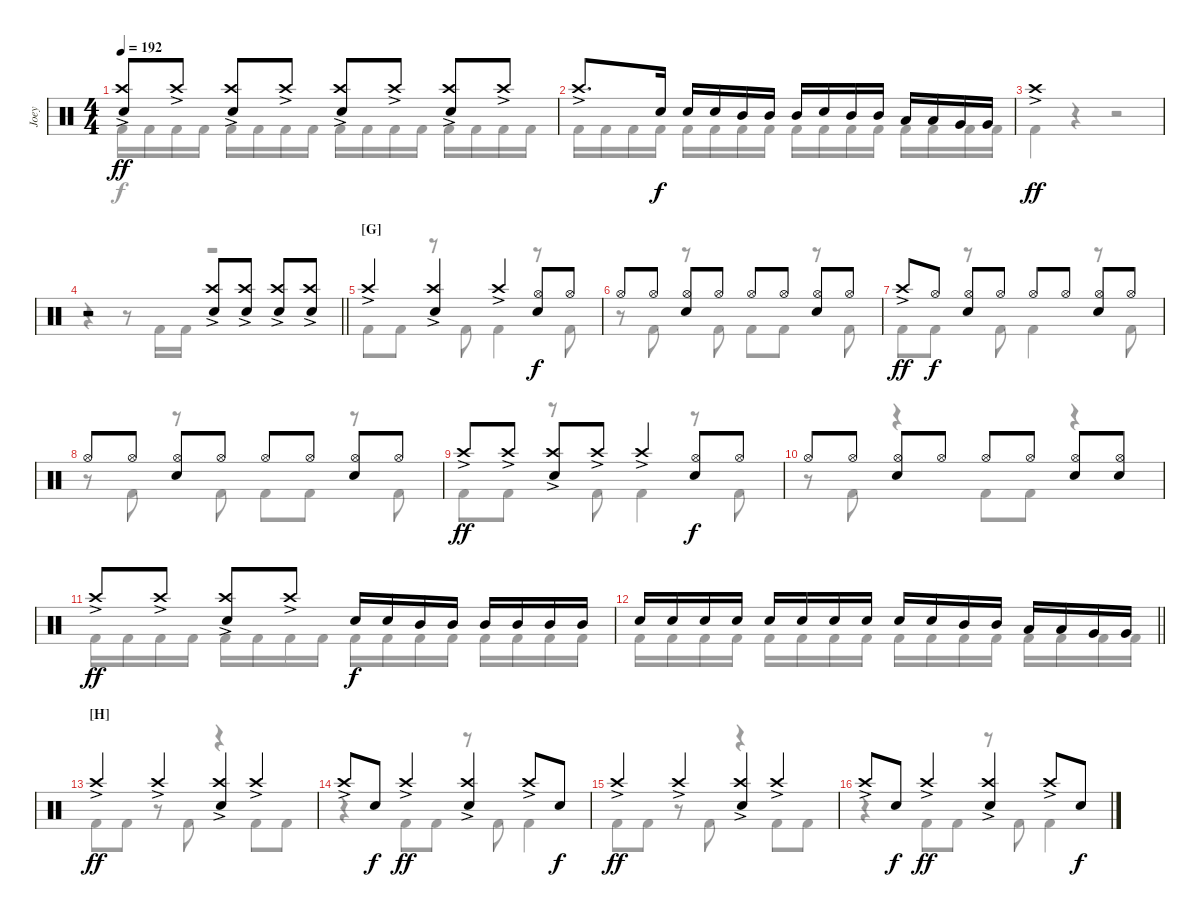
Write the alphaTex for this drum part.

\track ("Joey" "Joey") {instrument percussion}
\staff {score}
\articulation defaults
\voice
\ts (4 4)
\tempo 192
\clef neutral
\ks c
("Crash high (hit)"{ac} "Snare (hit) 2").8{dy ff} "Crash high (hit)"{ac}.8 ("Crash high (hit)"{ac} "Snare (hit) 2").8 "Crash high (hit)"{ac}.8 ("Crash high (hit)"{ac} "Snare (hit) 2").8 "Crash high (hit)"{ac}.8 ("Crash high (hit)"{ac} "Snare (hit) 2").8 "Crash high (hit)"{ac}.8 |
"Crash high (hit)"{ac}.8{d} "Snare (hit) 2".16{dy f} "Snare (hit) 2".16 "Snare (hit) 2".16 "Mid Tom (hit)".16 "Mid Tom (hit)".16 "Mid Tom (hit)".16 "Snare (hit) 2".16 "Mid Tom (hit)".16 "Mid Tom (hit)".16 "Low Tom (hit)".16 "Low Tom (hit)".16 "Very Low Tom (hit)".16 "Very Low Tom (hit)".16 |
"Crash high (hit)"{ac}.1{dy ff} |
\barLineRight lightlight
r.2 ("Crash high (hit)"{ac} "Snare (hit) 2").8 ("Crash high (hit)"{ac} "Snare (hit) 2").8 ("Crash high (hit)"{ac} "Snare (hit) 2").8 ("Crash high (hit)"{ac} "Snare (hit) 2").8 |
\section ("" "[G]")
"Crash high (hit)"{ac}.4 ("Crash high (hit)"{ac} "Snare (hit) 2").4 "Crash high (hit)"{ac}.4 ("Hi-Hat (open)" "Snare (hit) 2").8{dy f} "Hi-Hat (open)".8 |
"Hi-Hat (open)".8 "Hi-Hat (open)".8 ("Hi-Hat (open)" "Snare (hit) 2").8 "Hi-Hat (open)".8 "Hi-Hat (open)".8 "Hi-Hat (open)".8 ("Hi-Hat (open)" "Snare (hit) 2").8 "Hi-Hat (open)".8 |
"Crash high (hit)"{ac}.8{dy ff} "Hi-Hat (open)".8{dy f} ("Hi-Hat (open)" "Snare (hit) 2").8 "Hi-Hat (open)".8 "Hi-Hat (open)".8 "Hi-Hat (open)".8 ("Hi-Hat (open)" "Snare (hit) 2").8 "Hi-Hat (open)".8 |
"Hi-Hat (open)".8 "Hi-Hat (open)".8 ("Hi-Hat (open)" "Snare (hit) 2").8 "Hi-Hat (open)".8 "Hi-Hat (open)".8 "Hi-Hat (open)".8 ("Hi-Hat (open)" "Snare (hit) 2").8 "Hi-Hat (open)".8 |
"Crash high (hit)"{ac}.8{dy ff} "Crash high (hit)"{ac}.8 ("Crash high (hit)"{ac} "Snare (hit) 2").8 "Crash high (hit)"{ac}.8 "Crash high (hit)"{ac}.4 ("Hi-Hat (open)" "Snare (hit) 2").8{dy f} "Hi-Hat (open)".8 |
"Hi-Hat (open)".8 "Hi-Hat (open)".8 ("Hi-Hat (open)" "Snare (hit) 2").8 "Hi-Hat (open)".8 "Hi-Hat (open)".8 "Hi-Hat (open)".8 ("Hi-Hat (open)" "Snare (hit) 2").8 ("Hi-Hat (open)" "Snare (hit) 2").8 |
"Crash high (hit)"{ac}.8{dy ff} "Crash high (hit)"{ac}.8 ("Crash high (hit)"{ac} "Snare (hit) 2").8 "Crash high (hit)"{ac}.8 "Snare (hit) 2".16{dy f} "Snare (hit) 2".16 "Mid Tom (hit)".16 "Mid Tom (hit)".16 "Mid Tom (hit)".16 "Mid Tom (hit)".16 "Mid Tom (hit)".16 "Mid Tom (hit)".16 |
\barLineRight lightlight "Snare (hit) 2".16 "Snare (hit) 2".16 "Snare (hit) 2".16 "Snare (hit) 2".16 "Snare (hit) 2".16 "Snare (hit) 2".16 "Snare (hit) 2".16 "Snare (hit) 2".16 "Snare (hit) 2".16 "Snare (hit) 2".16 "Mid Tom (hit)".16 "Mid Tom (hit)".16 "Low Tom (hit)".16 "Low Tom (hit)".16 "Very Low Tom (hit)".16 "Very Low Tom (hit)".16
|
\section ("" "[H]")
"Crash high (hit)"{ac}.4{dy ff} "Crash high (hit)"{ac}.4 ("Crash high (hit)"{ac} "Snare (hit) 2").4 "Crash high (hit)"{ac}.4 |
"Crash high (hit)"{ac}.8 "Snare (hit) 2".8{dy f} "Crash high (hit)"{ac}.4{dy ff} ("Crash high (hit)"{ac} "Snare (hit) 2").4 "Crash high (hit)"{ac}.8 "Snare (hit) 2".8{dy f} |
"Crash high (hit)"{ac}.4{dy ff} "Crash high (hit)"{ac}.4 ("Crash high (hit)"{ac} "Snare (hit) 2").4 "Crash high (hit)"{ac}.4 |
"Crash high (hit)"{ac}.8 "Snare (hit) 2".8{dy f} "Crash high (hit)"{ac}.4{dy ff} ("Crash high (hit)"{ac} "Snare (hit) 2").4 "Crash high (hit)"{ac}.8 "Snare (hit) 2".8{dy f}
\voice
\clef neutral
\ottava regular
\simile none
\ks c "Kick (hit) 2".16{dy f} "Kick (hit) 2".16 "Kick (hit) 2".16 "Kick (hit) 2".16 "Kick (hit) 2".16 "Kick (hit) 2".16 "Kick (hit) 2".16 "Kick (hit) 2".16 "Kick (hit) 2".16 "Kick (hit) 2".16 "Kick (hit) 2".16 "Kick (hit) 2".16 "Kick (hit) 2".16 "Kick (hit) 2".16 "Kick (hit) 2".16 "Kick (hit) 2".16
|
"Kick (hit) 2".16 "Kick (hit) 2".16 "Kick (hit) 2".16 "Kick (hit) 2".16 "Kick (hit) 2".16 "Kick (hit) 2".16 "Kick (hit) 2".16 "Kick (hit) 2".16 "Kick (hit) 2".16 "Kick (hit) 2".16 "Kick (hit) 2".16 "Kick (hit) 2".16 "Kick (hit) 2".16 "Kick (hit) 2".16 "Kick (hit) 2".16 "Kick (hit) 2".16 |
"Kick (hit) 2".4 r.4 r.2 |
\barLineRight lightlight
r.4 r.8 "Kick (hit) 2".16 "Kick (hit) 2".16 r.2 |
"Kick (hit) 2".8 "Kick (hit) 2".8 r.8 "Kick (hit) 2".8 "Kick (hit) 2".4 r.8 "Kick (hit) 2".8 |
r.8 "Kick (hit) 2".8 r.8 "Kick (hit) 2".8 "Kick (hit) 2".8 "Kick (hit) 2".8 r.8 "Kick (hit) 2".8 |
"Kick (hit) 2".8 "Kick (hit) 2".8 r.8 "Kick (hit) 2".8 "Kick (hit) 2".4 r.8 "Kick (hit) 2".8 |
r.8 "Kick (hit) 2".8 r.8 "Kick (hit) 2".8 "Kick (hit) 2".8 "Kick (hit) 2".8 r.8 "Kick (hit) 2".8 |
"Kick (hit) 2".8 "Kick (hit) 2".8 r.8 "Kick (hit) 2".8 "Kick (hit) 2".4 r.8 "Kick (hit) 2".8 |
r.8 "Kick (hit) 2".8 r.4 "Kick (hit) 2".8 "Kick (hit) 2".8 r.4 |
"Kick (hit) 2".16 "Kick (hit) 2".16 "Kick (hit) 2".16 "Kick (hit) 2".16 "Kick (hit) 2".16 "Kick (hit) 2".16 "Kick (hit) 2".16 "Kick (hit) 2".16 "Kick (hit) 2".16 "Kick (hit) 2".16 "Kick (hit) 2".16 "Kick (hit) 2".16 "Kick (hit) 2".16 "Kick (hit) 2".16 "Kick (hit) 2".16 "Kick (hit) 2".16 |
\barLineRight lightlight "Kick (hit) 2".16 "Kick (hit) 2".16 "Kick (hit) 2".16 "Kick (hit) 2".16 "Kick (hit) 2".16 "Kick (hit) 2".16 "Kick (hit) 2".16 "Kick (hit) 2".16 "Kick (hit) 2".16 "Kick (hit) 2".16 "Kick (hit) 2".16 "Kick (hit) 2".16 "Kick (hit) 2".16 "Kick (hit) 2".16 "Kick (hit) 2".16 "Kick (hit) 2".16
|
"Kick (hit) 2".8 "Kick (hit) 2".8 r.8 "Kick (hit) 2".8 r.4 "Kick (hit) 2".8 "Kick (hit) 2".8 |
r.4 "Kick (hit) 2".8 "Kick (hit) 2".8 r.8 "Kick (hit) 2".8 "Kick (hit) 2".4 |
"Kick (hit) 2".8 "Kick (hit) 2".8 r.8 "Kick (hit) 2".8 r.4 "Kick (hit) 2".8 "Kick (hit) 2".8 |
r.4 "Kick (hit) 2".8 "Kick (hit) 2".8 r.8 "Kick (hit) 2".8 "Kick (hit) 2".4
